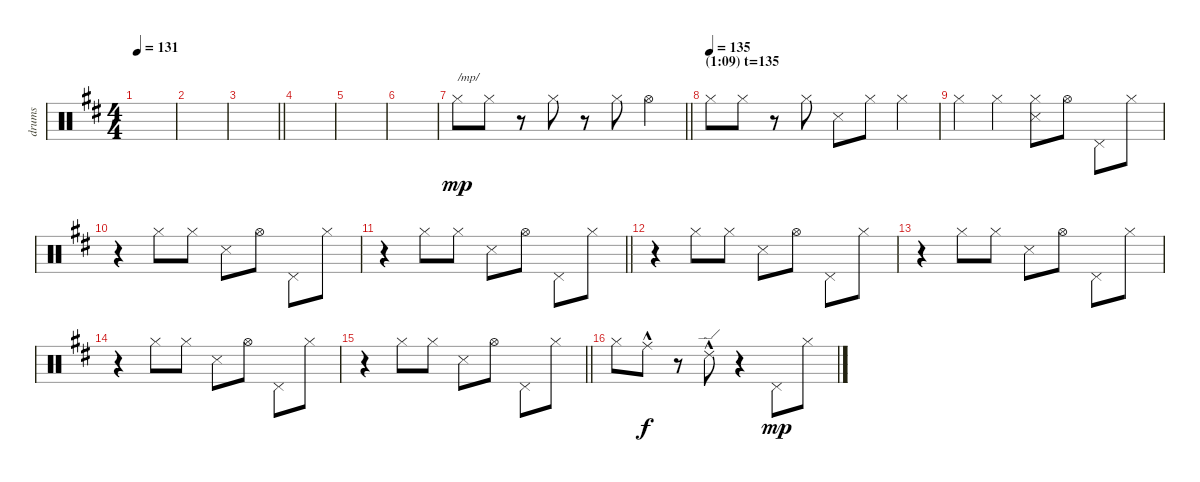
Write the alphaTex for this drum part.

\track ("drums" "drums") {instrument percussion}
\staff {score}
\articulation defaults
\ts (4 4)
\tempo 131
\clef neutral
\ks d
|
|
\barLineRight lightlight
|
|
|
|
\barLineRight lightlight "Hi-Hat (closed)".8{txt "/mp/" dy mp} "Hi-Hat (closed)".8
r.8 "Hi-Hat (closed)".8 r.8 "Hi-Hat (closed)".8 "Hi-Hat (open)".4 |
\section ("" "(1:09) t=135")
\tempo (135)
"Hi-Hat (closed)".8 "Hi-Hat (closed)".8 r.8 "Hi-Hat (closed)".8 "Snare (side stick) 3".8 "Hi-Hat (closed)".8 "Hi-Hat (closed)".4 |
"Hi-Hat (closed)".4 "Hi-Hat (closed)".4 ("Hi-Hat (closed)" "Snare (side stick) 3").8 "Hi-Hat (open)".8 "Pedal Hi-Hat (hit)".8 "Hi-Hat (closed)".8 |
r.4 "Hi-Hat (closed)".8 "Hi-Hat (closed)".8 "Snare (side stick) 3".8 "Hi-Hat (open)".8 "Pedal Hi-Hat (hit)".8 "Hi-Hat (closed)".8 |
\barLineRight lightlight
r.4 "Hi-Hat (closed)".8 "Hi-Hat (closed)".8 "Snare (side stick) 3".8 "Hi-Hat (open)".8 "Pedal Hi-Hat (hit)".8 "Hi-Hat (closed)".8 |
r.4 "Hi-Hat (closed)".8 "Hi-Hat (closed)".8 "Snare (side stick) 3".8 "Hi-Hat (open)".8 "Pedal Hi-Hat (hit)".8 "Hi-Hat (closed)".8 |
r.4 "Hi-Hat (closed)".8 "Hi-Hat (closed)".8 "Snare (side stick) 3".8 "Hi-Hat (open)".8 "Pedal Hi-Hat (hit)".8 "Hi-Hat (closed)".8 |
r.4 "Hi-Hat (closed)".8 "Hi-Hat (closed)".8 "Snare (side stick) 3".8 "Hi-Hat (open)".8 "Pedal Hi-Hat (hit)".8 "Hi-Hat (closed)".8 |
\barLineRight lightlight
r.4 "Hi-Hat (closed)".8 "Hi-Hat (closed)".8 "Snare (side stick) 3".8 "Hi-Hat (open)".8 "Pedal Hi-Hat (hit)".8 "Hi-Hat (closed)".8 |
"Hi-Hat (closed)".8 "Ride (middle)"{hac}.8{dy f} r.8 "Ride (edge) 2"{hac}.8 r.4 "Pedal Hi-Hat (hit)".8{dy mp} "Hi-Hat (closed)".8
